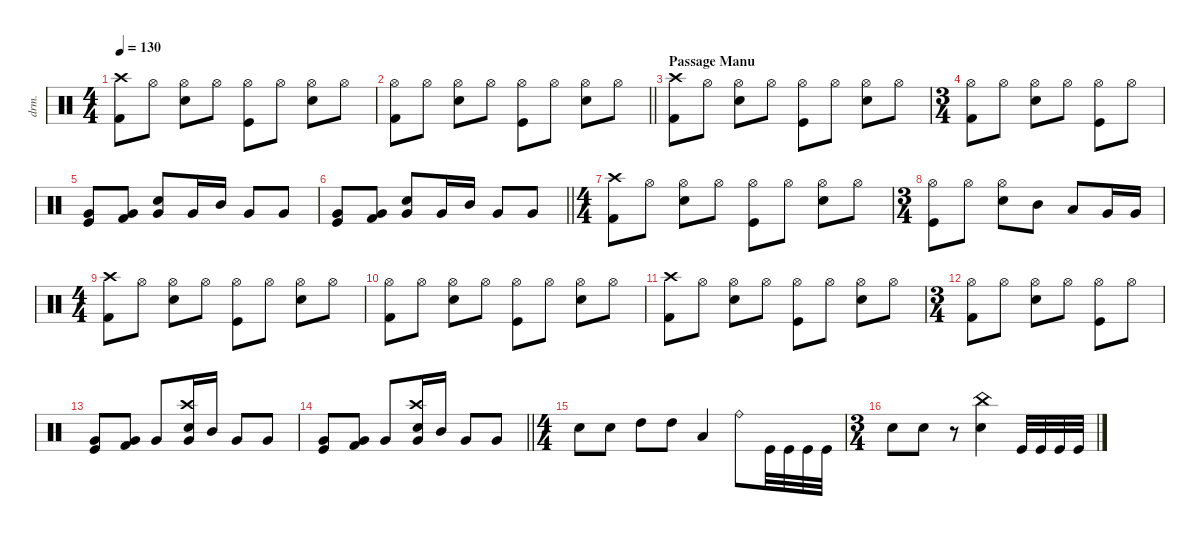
\defaultSystemsLayout 4
\hideDynamics
\bracketExtendMode nobrackets
\track ("Manouche" "drm.") {solo instrument percussion}
\staff {score}
\articulation defaults
\ts (4 4)
\beaming (8 2 2 2 2)
\tempo 130
\clef neutral
\ks c
("Kick (hit) 2" "Crash high (hit)").8{dy f beam Down} "Hi-Hat (open)".8{dy mp beam Down} ("Hi-Hat (open)" "Snare (hit) 2").8{dy f beam Down} "Hi-Hat (open)".8{dy mp beam Down} ("Hi-Hat (open)" "Kick (hit)").8{dy f beam Down} "Hi-Hat (open)".8{dy mp beam Down} ("Hi-Hat (open)" "Snare (hit) 2").8{dy f beam Down} "Hi-Hat (open)".8{dy mp beam Down} |
\barLineRight lightlight
("Hi-Hat (open)" "Kick (hit) 2").8{dy f beam Down} "Hi-Hat (open)".8{dy mp beam Down} ("Hi-Hat (open)" "Snare (hit) 2").8{dy f beam Down} "Hi-Hat (open)".8{dy mp beam Down} ("Hi-Hat (open)" "Kick (hit)").8{dy f beam Down} "Hi-Hat (open)".8{dy mp beam Down} ("Hi-Hat (open)" "Snare (hit) 2").8{dy f beam Down} "Hi-Hat (open)".8{dy mp beam Down} |
\section ("" "Passage Manu")
("Kick (hit) 2" "Crash high (hit)").8{dy f beam Down} "Hi-Hat (open)".8{dy mp beam Down} ("Hi-Hat (open)" "Snare (hit) 2").8{dy f beam Down} "Hi-Hat (open)".8{dy mp beam Down} ("Hi-Hat (open)" "Kick (hit)").8{dy f beam Down} "Hi-Hat (open)".8{dy mp beam Down} ("Hi-Hat (open)" "Snare (hit) 2").8{dy f beam Down} "Hi-Hat (open)".8{dy mp beam Down} |
\ts (3 4)
\beaming (8 2 2 2 2)
("Hi-Hat (open)" "Kick (hit) 2").8{dy f beam Down} "Hi-Hat (open)".8{dy mp beam Down} ("Hi-Hat (open)" "Snare (hit) 2").8{dy f beam Down} "Hi-Hat (open)".8{dy mp beam Down} ("Hi-Hat (open)" "Kick (hit)").8{dy f beam Down} "Hi-Hat (open)".8{dy mp beam Down} |
\beaming (8 2 2 2)
("Kick (hit)" "Very Low Tom (hit)").8{dy f beam Up} ("Very Low Tom (hit)" "Kick (hit) 2").8{beam Up} ("Very Low Tom (hit)" "Snare (hit) 2").8{beam Up} "Very Low Tom (hit)".16{beam Up} "Mid Tom (hit)".16{beam Up} "Very Low Tom (hit)".8{beam Up} "Very Low Tom (hit)".8{beam Up} |
\barLineRight lightlight
("Kick (hit)" "Very Low Tom (hit)").8{beam Up} ("Very Low Tom (hit)" "Kick (hit) 2").8{beam Up} ("Very Low Tom (hit)" "Snare (hit) 2").8{beam Up} "Very Low Tom (hit)".16{beam Up} "Mid Tom (hit)".16{beam Up} "Very Low Tom (hit)".8{beam Up} "Very Low Tom (hit)".8{beam Up} |
\ts (4 4)
\beaming (8 2 2 2 2)
("Crash high (hit)" "Kick (hit) 2").8{dy fff beam Down} "Hi-Hat (open)".8{dy mp beam Down} ("Hi-Hat (open)" "Snare (hit) 2").8{dy f beam Down} "Hi-Hat (open)".8{dy mp beam Down} ("Hi-Hat (open)" "Kick (hit)").8{dy f beam Down} "Hi-Hat (open)".8{dy mp beam Down} ("Hi-Hat (open)" "Snare (hit) 2").8{dy f beam Down} "Hi-Hat (open)".8{dy mp beam Down} |
\ts (3 4)
\beaming (8 2 2 2)
("Hi-Hat (open)" "Kick (hit)").8{dy f beam Down} "Hi-Hat (open)".8{dy mp beam Down} ("Hi-Hat (open)" "Snare (hit) 2").8{dy f beam Down} "Mid Tom (hit)".8{beam Down} "Low Tom (hit)".8{beam Up} "Very Low Tom (hit)".16{beam Up} "Very Low Tom (hit)".16{beam Up} |
\ts (4 4)
\beaming (8 2 2 2 2)
("Kick (hit) 2" "Crash high (hit)").8{beam Down} "Hi-Hat (open)".8{dy mp beam Down} ("Hi-Hat (open)" "Snare (hit) 2").8{dy f beam Down} "Hi-Hat (open)".8{dy mp beam Down} ("Hi-Hat (open)" "Kick (hit)").8{dy f beam Down} "Hi-Hat (open)".8{dy mp beam Down} ("Hi-Hat (open)" "Snare (hit) 2").8{dy f beam Down} "Hi-Hat (open)".8{dy mp beam Down} |
("Hi-Hat (open)" "Kick (hit) 2").8{dy f beam Down} "Hi-Hat (open)".8{dy mp beam Down} ("Hi-Hat (open)" "Snare (hit) 2").8{dy f beam Down} "Hi-Hat (open)".8{dy mp beam Down} ("Hi-Hat (open)" "Kick (hit)").8{dy f beam Down} "Hi-Hat (open)".8{dy mp beam Down} ("Hi-Hat (open)" "Snare (hit) 2").8{dy f beam Down} "Hi-Hat (open)".8{dy mp beam Down} |
("Kick (hit) 2" "Crash high (hit)").8{dy f beam Down} "Hi-Hat (open)".8{dy mp beam Down} ("Hi-Hat (open)" "Snare (hit) 2").8{dy f beam Down} "Hi-Hat (open)".8{dy mp beam Down} ("Hi-Hat (open)" "Kick (hit)").8{dy f beam Down} "Hi-Hat (open)".8{dy mp beam Down} ("Hi-Hat (open)" "Snare (hit) 2").8{dy f beam Down} "Hi-Hat (open)".8{dy mp beam Down} |
\ts (3 4)
\beaming (8 2 2 2)
("Hi-Hat (open)" "Kick (hit) 2").8{dy f beam Down} "Hi-Hat (open)".8{dy mp beam Down} ("Hi-Hat (open)" "Snare (hit) 2").8{dy f beam Down} "Hi-Hat (open)".8{dy mp beam Down} ("Hi-Hat (open)" "Kick (hit)").8{dy f beam Down} "Hi-Hat (open)".8{dy mp beam Down} |
("Kick (hit)" "Very Low Tom (hit)").8{dy f beam Up} ("Very Low Tom (hit)" "Kick (hit) 2").8{beam Up} "Very Low Tom (hit)".8{beam Up} ("Very Low Tom (hit)" "Crash high (hit)" "Snare (hit) 2").16{beam Up} "Mid Tom (hit)".16{beam Up} "Very Low Tom (hit)".8{beam Up} "Very Low Tom (hit)".8{beam Up} |
\barLineRight lightlight
("Kick (hit)" "Very Low Tom (hit)").8{beam Up} ("Very Low Tom (hit)" "Kick (hit) 2").8{beam Up} "Very Low Tom (hit)".8{beam Up} ("Very Low Tom (hit)" "Crash high (hit)" "Snare (hit) 2").16{beam Up} "Mid Tom (hit)".16{beam Up} "Very Low Tom (hit)".8{beam Up} "Very Low Tom (hit)".8{beam Up} |
\ts (4 4)
\beaming (8 2 2 2 2)
"Snare (hit) 2".8{beam Down} "Snare (hit) 2".8{beam Down} "High Tom (hit)".8{beam Down} "High Tom (hit)".8{beam Down} "Low Tom (hit)".4{beam Up} "Ride (bell)".8{beam Down} "Kick (hit)".32{beam Down} "Kick (hit)".32{beam Down} "Kick (hit)".32{beam Down} "Kick (hit)".32{beam Down} |
\ts (3 4)
\beaming (8 2 2 2)
"Snare (hit) 2".8{beam Down} "Snare (hit) 2".8{beam Down} r.8{beam Down} ("Snare (hit) 2" "China (hit)").4{beam Down} "Kick (hit)".32{beam Up} "Kick (hit)".32{beam Up} "Kick (hit)".32{beam Up} "Kick (hit)".32{beam Up}
